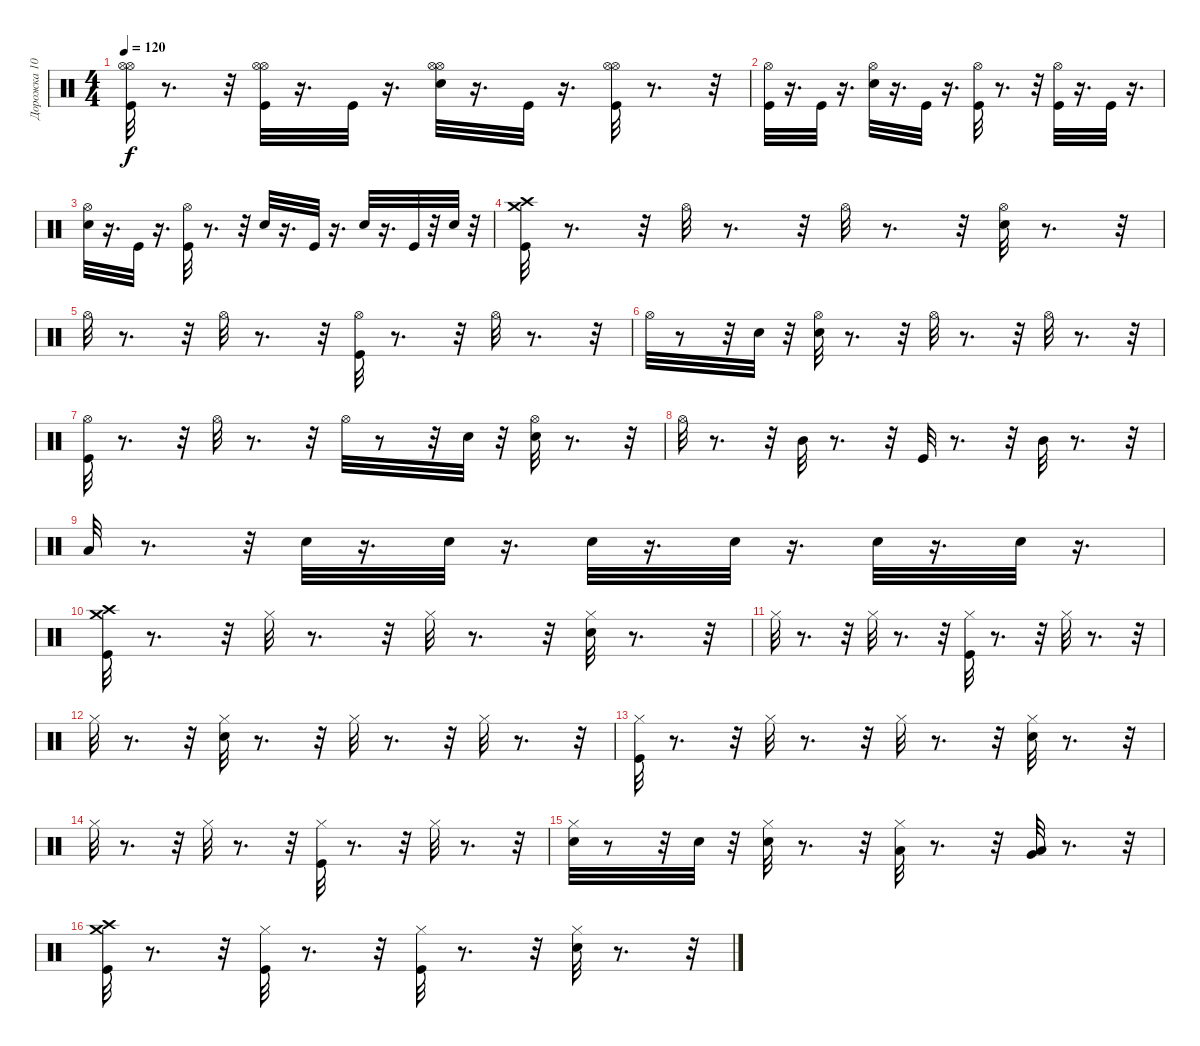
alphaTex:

\track ("Дорожка 10" "Дорожка 10") {instrument percussion}
\staff {score}
\articulation defaults
\ts (4 4)
\tempo 120
\clef neutral
\ks c
("Hi-Hat (open)" "Kick (hit)" "Hi-Hat (open)").32{dy f} r.8{d} r.32 ("Hi-Hat (open)" "Kick (hit)" "Hi-Hat (open)").32 r.16{d} "Kick (hit)".32 r.16{d} ("Hi-Hat (open)" "Snare (hit) 2" "Hi-Hat (open)").32 r.16{d} "Kick (hit)".32 r.16{d} ("Hi-Hat (open)" "Kick (hit)" "Hi-Hat (open)").32 r.8{d} r.32 |
("Kick (hit)" "Hi-Hat (open)").32 r.16{d} "Kick (hit)".32 r.16{d} ("Hi-Hat (open)" "Snare (hit) 2").32 r.16{d} "Kick (hit)".32 r.16{d} ("Hi-Hat (open)" "Kick (hit)").32 r.8{d} r.32 ("Hi-Hat (open)" "Kick (hit)").32 r.16{d} "Kick (hit)".32 r.16{d} |
("Hi-Hat (open)" "Snare (hit) 2").32 r.16{d} "Kick (hit)".32 r.16{d} ("Hi-Hat (open)" "Kick (hit)").32 r.8{d} r.32 "Snare (hit) 2".32 r.16{d} "Kick (hit)".32 r.16{d} "Snare (hit) 2".32 r.16{d} "Kick (hit)".32 r.32 "Snare (hit) 2".32 r.32 |
("Crash high (hit)" "Crash medium (hit)" "Kick (hit)").32 r.8{d} r.32 "Hi-Hat (open)".32 r.8{d} r.32 "Hi-Hat (open)".32 r.8{d} r.32 ("Hi-Hat (open)" "Snare (hit) 2").32 r.8{d} r.32 |
"Hi-Hat (open)".32 r.8{d} r.32 "Hi-Hat (open)".32 r.8{d} r.32 ("Hi-Hat (open)" "Kick (hit)").32 r.8{d} r.32 "Hi-Hat (open)".32 r.8{d} r.32 |
"Hi-Hat (open)".32 r.8 r.32 "Snare (hit) 2".32 r.32 ("Hi-Hat (open)" "Snare (hit) 2").32 r.8{d} r.32 "Hi-Hat (open)".32 r.8{d} r.32 "Hi-Hat (open)".32 r.8{d} r.32 |
("Kick (hit)" "Hi-Hat (open)").32 r.8{d} r.32 "Hi-Hat (open)".32 r.8{d} r.32 "Hi-Hat (open)".32 r.8 r.32 "Snare (hit) 2".32 r.32 ("Snare (hit) 2" "Hi-Hat (open)").32 r.8{d} r.32 |
"Hi-Hat (open)".32 r.8{d} r.32 "Mid Tom (hit)".32 r.8{d} r.32 "Kick (hit)".32 r.8{d} r.32 "Mid Tom (hit)".32 r.8{d} r.32 |
"Low Tom (hit)".32 r.8{d} r.32 "Snare (hit) 2".32 r.16{d} "Snare (hit) 2".32 r.16{d} "Snare (hit) 2".32 r.16{d} "Snare (hit) 2".32 r.16{d} "Snare (hit) 2".32 r.16{d} "Snare (hit) 2".32 r.16{d} |
("Crash high (hit)" "Crash medium (hit)" "Kick (hit)").32 r.8{d} r.32 "Hi-Hat (closed)".32 r.8{d} r.32 "Hi-Hat (closed)".32 r.8{d} r.32 ("Hi-Hat (closed)" "Snare (hit) 2").32 r.8{d} r.32 |
"Hi-Hat (closed)".32 r.8{d} r.32 "Hi-Hat (closed)".32 r.8{d} r.32 ("Hi-Hat (closed)" "Kick (hit)").32 r.8{d} r.32 "Hi-Hat (closed)".32 r.8{d} r.32 |
"Hi-Hat (closed)".32 r.8{d} r.32 ("Hi-Hat (closed)" "Snare (hit) 2").32 r.8{d} r.32 "Hi-Hat (closed)".32 r.8{d} r.32 "Hi-Hat (closed)".32 r.8{d} r.32 |
("Hi-Hat (closed)" "Kick (hit)").32 r.8{d} r.32 "Hi-Hat (closed)".32 r.8{d} r.32 "Hi-Hat (closed)".32 r.8{d} r.32 ("Snare (hit) 2" "Hi-Hat (closed)").32 r.8{d} r.32 |
"Hi-Hat (closed)".32 r.8{d} r.32 "Hi-Hat (closed)".32 r.8{d} r.32 ("Hi-Hat (closed)" "Kick (hit)").32 r.8{d} r.32 "Hi-Hat (closed)".32 r.8{d} r.32 |
("Snare (hit) 2" "Hi-Hat (closed)").32 r.8 r.32 "Snare (hit) 2".32 r.32 ("Snare (hit) 2" "Hi-Hat (closed)").32 r.8{d} r.32 ("Low Tom (hit)" "Hi-Hat (closed)").32 r.8{d} r.32 ("Very Low Tom (hit)" "Low Floor Tom (hit)").32 r.8{d} r.32 |
("Crash medium (hit)" "Crash high (hit)" "Kick (hit)").32 r.8{d} r.32 ("Kick (hit)" "Hi-Hat (closed)").32 r.8{d} r.32 ("Kick (hit)" "Hi-Hat (closed)").32 r.8{d} r.32 ("Hi-Hat (closed)" "Snare (hit) 2").32 r.8{d} r.32
